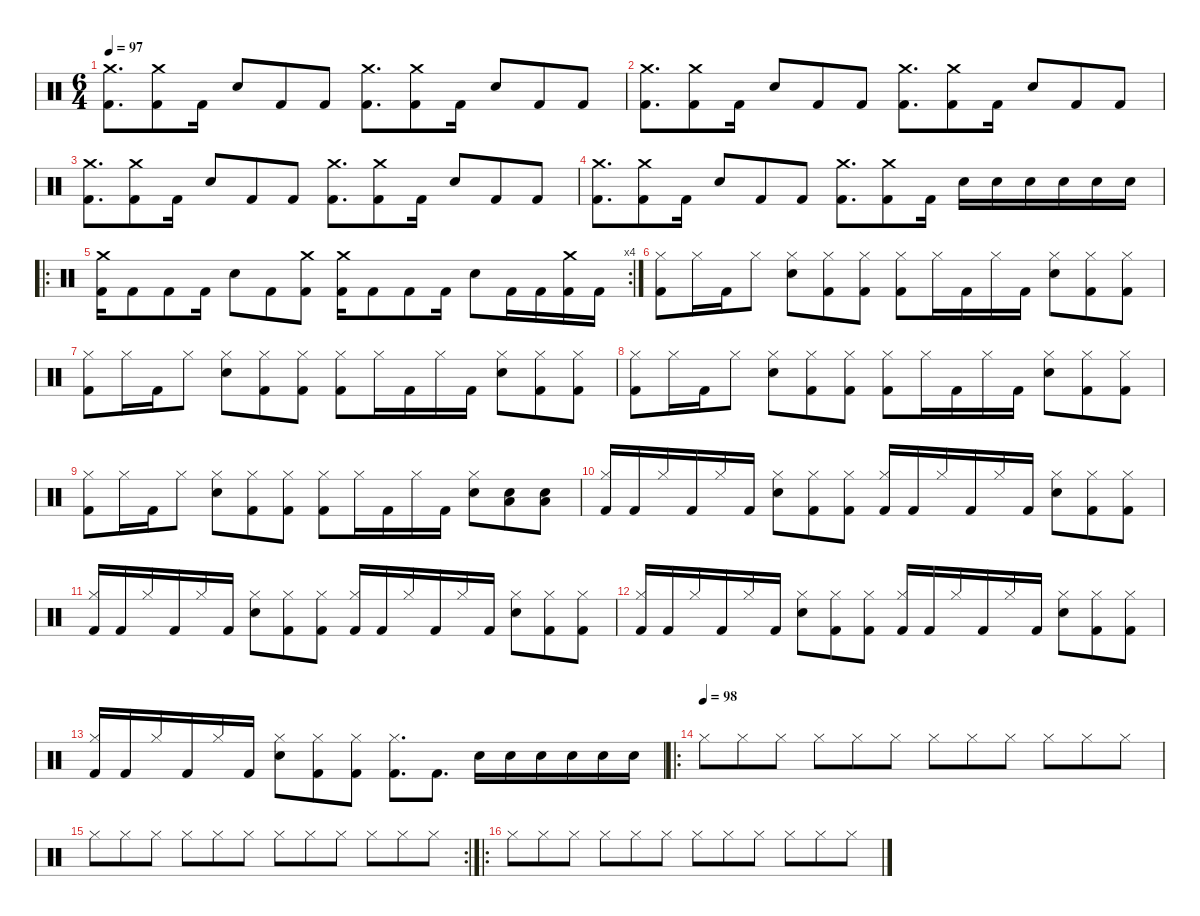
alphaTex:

\defaultSystemsLayout 4
\hideDynamics
\bracketExtendMode nobrackets
\singleTrackTrackNamePolicy hidden
\multiTrackTrackNamePolicy hidden
\firstSystemTrackNameMode fullname
\firstSystemTrackNameOrientation horizontal
\otherSystemsTrackNameOrientation horizontal
\track ("Percussion" "drm.") {instrument percussion}
\staff {score}
\articulation defaults
\ts (6 4)
\beaming (8 3 3 3 3)
\tempo 97
\clef neutral
\ks c
("Crash medium (hit)" "Kick (hit) 2").8{d dy f beam Down} ("Crash medium (hit)" "Kick (hit) 2").8{beam Down beam merge} "Kick (hit) 2".16{dy ff beam Down beam split} "Snare (hit) 2".8{beam Up} "Kick (hit) 2".8{beam Up} "Kick (hit) 2".8{beam Up} ("Crash medium (hit)" "Kick (hit) 2").8{d dy f beam Down} ("Crash medium (hit)" "Kick (hit) 2").8{beam Down} "Kick (hit) 2".16{dy ff beam Down beam split} "Snare (hit) 2".8{beam Up} "Kick (hit) 2".8{beam Up} "Kick (hit) 2".8{beam Up} |
\beaming (8 6 6)
("Crash medium (hit)" "Kick (hit) 2").8{d dy f beam Down} ("Crash medium (hit)" "Kick (hit) 2").8{beam Down} "Kick (hit) 2".16{dy ff beam Down beam split} "Snare (hit) 2".8{beam Up} "Kick (hit) 2".8{beam Up} "Kick (hit) 2".8{beam Up} ("Crash medium (hit)" "Kick (hit) 2").8{d dy f beam Down} ("Crash medium (hit)" "Kick (hit) 2").8{beam Down} "Kick (hit) 2".16{dy ff beam Down beam split} "Snare (hit) 2".8{beam Up} "Kick (hit) 2".8{beam Up} "Kick (hit) 2".8{beam Up} |
("Crash medium (hit)" "Kick (hit) 2").8{d dy f beam Down} ("Crash medium (hit)" "Kick (hit) 2").8{beam Down} "Kick (hit) 2".16{dy ff beam Down beam split} "Snare (hit) 2".8{beam Up} "Kick (hit) 2".8{beam Up} "Kick (hit) 2".8{beam Up} ("Crash medium (hit)" "Kick (hit) 2").8{d dy f beam Down} ("Crash medium (hit)" "Kick (hit) 2").8{beam Down} "Kick (hit) 2".16{dy ff beam Down beam split} "Snare (hit) 2".8{beam Up} "Kick (hit) 2".8{beam Up} "Kick (hit) 2".8{beam Up} |
("Crash medium (hit)" "Kick (hit) 2").8{d dy f beam Down} ("Crash medium (hit)" "Kick (hit) 2").8{beam Down} "Kick (hit) 2".16{dy ff beam Down beam split} "Snare (hit) 2".8{beam Up} "Kick (hit) 2".8{beam Up} "Kick (hit) 2".8{beam Up} ("Crash medium (hit)" "Kick (hit) 2").8{d dy f beam Down} ("Crash medium (hit)" "Kick (hit) 2").8{beam Down} "Kick (hit) 2".16{dy ff beam Down beam split} "Snare (hit) 2".16{dy f beam Down} "Snare (hit) 2".16{beam Down} "Snare (hit) 2".16{beam Down} "Snare (hit) 2".16{beam Down} "Snare (hit) 2".16{beam Down} "Snare (hit) 2".16{beam Down} |
\ro
\rc 4
("Crash medium (hit)" "Kick (hit) 2").16{beam Down} "Kick (hit) 2".8{dy ff beam Down} "Kick (hit) 2".8{beam Down} "Kick (hit) 2".16{beam Down beam split} "Snare (hit) 2".8{beam Down} "Kick (hit) 2".8{beam Down} ("Crash medium (hit)" "Kick (hit) 2").8{dy f beam Down} ("Crash medium (hit)" "Kick (hit) 2").16{beam Down} "Kick (hit) 2".8{dy ff beam Down} "Kick (hit) 2".8{beam Down} "Kick (hit) 2".16{beam Down beam split} "Snare (hit) 2".8{beam Down} "Kick (hit) 2".16{beam Down} "Kick (hit) 2".16{beam Down} ("Crash medium (hit)" "Kick (hit) 2").16{dy f beam Down} "Kick (hit) 2".16{dy ff beam Down} |
("Hi-Hat (closed)" "Kick (hit) 2").8{dy f beam Down} "Hi-Hat (closed)".16{beam Down} "Kick (hit) 2".16{dy ff beam Down} "Hi-Hat (closed)".8{dy f beam Down beam split} ("Hi-Hat (closed)" "Snare (hit) 2").8{beam Down} ("Hi-Hat (closed)" "Kick (hit) 2").8{beam Down} ("Hi-Hat (closed)" "Kick (hit) 2").8{beam Down} ("Hi-Hat (closed)" "Kick (hit) 2").8{beam Down} "Hi-Hat (closed)".16{beam Down} "Kick (hit) 2".16{dy ff beam Down} "Hi-Hat (closed)".16{dy f beam Down} "Kick (hit) 2".16{dy ff beam Down beam split} ("Hi-Hat (closed)" "Snare (hit) 2").8{dy f beam Down} ("Hi-Hat (closed)" "Kick (hit) 2").8{beam Down} ("Hi-Hat (closed)" "Kick (hit) 2").8{beam Down} |
("Hi-Hat (closed)" "Kick (hit) 2").8{beam Down} "Hi-Hat (closed)".16{beam Down} "Kick (hit) 2".16{dy ff beam Down} "Hi-Hat (closed)".8{dy f beam Down beam split} ("Hi-Hat (closed)" "Snare (hit) 2").8{beam Down} ("Hi-Hat (closed)" "Kick (hit) 2").8{beam Down} ("Hi-Hat (closed)" "Kick (hit) 2").8{beam Down} ("Hi-Hat (closed)" "Kick (hit) 2").8{beam Down} "Hi-Hat (closed)".16{beam Down} "Kick (hit) 2".16{dy ff beam Down} "Hi-Hat (closed)".16{dy f beam Down} "Kick (hit) 2".16{dy ff beam Down beam split} ("Hi-Hat (closed)" "Snare (hit) 2").8{dy f beam Down} ("Hi-Hat (closed)" "Kick (hit) 2").8{beam Down} ("Hi-Hat (closed)" "Kick (hit) 2").8{beam Down} |
("Hi-Hat (closed)" "Kick (hit) 2").8{beam Down} "Hi-Hat (closed)".16{beam Down} "Kick (hit) 2".16{dy ff beam Down} "Hi-Hat (closed)".8{dy f beam Down beam split} ("Hi-Hat (closed)" "Snare (hit) 2").8{beam Down} ("Hi-Hat (closed)" "Kick (hit) 2").8{beam Down} ("Hi-Hat (closed)" "Kick (hit) 2").8{beam Down} ("Hi-Hat (closed)" "Kick (hit) 2").8{beam Down} "Hi-Hat (closed)".16{beam Down} "Kick (hit) 2".16{dy ff beam Down} "Hi-Hat (closed)".16{dy f beam Down} "Kick (hit) 2".16{dy ff beam Down beam split} ("Hi-Hat (closed)" "Snare (hit) 2").8{dy f beam Down} ("Hi-Hat (closed)" "Kick (hit) 2").8{beam Down} ("Hi-Hat (closed)" "Kick (hit) 2").8{beam Down} |
("Hi-Hat (closed)" "Kick (hit) 2").8{beam Down} "Hi-Hat (closed)".16{beam Down} "Kick (hit) 2".16{dy ff beam Down} "Hi-Hat (closed)".8{dy f beam Down beam split} ("Hi-Hat (closed)" "Snare (hit) 2").8{beam Down} ("Hi-Hat (closed)" "Kick (hit) 2").8{beam Down} ("Hi-Hat (closed)" "Kick (hit) 2").8{beam Down} ("Hi-Hat (closed)" "Kick (hit) 2").8{beam Down} "Hi-Hat (closed)".16{beam Down} "Kick (hit) 2".16{dy ff beam Down} "Hi-Hat (closed)".16{dy f beam Down} "Kick (hit) 2".16{dy ff beam Down beam split} ("Hi-Hat (closed)" "Snare (hit) 2").8{dy f beam Down} ("Snare (hit) 2" "Low Floor Tom (hit)").8{beam Down} ("Snare (hit) 2" "Low Floor Tom (hit)").8{beam Down} |
("Hi-Hat (closed)" "Kick (hit) 2").16{beam Up} "Kick (hit) 2".16{dy ff beam Up} "Hi-Hat (closed)".16{dy f beam Up} "Kick (hit) 2".16{dy ff beam Up} "Hi-Hat (closed)".16{dy f beam Up} "Kick (hit) 2".16{dy ff beam Up beam split} ("Hi-Hat (closed)" "Snare (hit) 2").8{dy f beam Down} ("Hi-Hat (closed)" "Kick (hit) 2").8{beam Down} ("Hi-Hat (closed)" "Kick (hit) 2").8{beam Down} ("Hi-Hat (closed)" "Kick (hit) 2").16{beam Up} "Kick (hit) 2".16{dy ff beam Up} "Hi-Hat (closed)".16{dy f beam Up} "Kick (hit) 2".16{dy ff beam Up} "Hi-Hat (closed)".16{dy f beam Up} "Kick (hit) 2".16{dy ff beam Up beam split} ("Hi-Hat (closed)" "Snare (hit) 2").8{dy f beam Down} ("Hi-Hat (closed)" "Kick (hit) 2").8{beam Down} ("Hi-Hat (closed)" "Kick (hit) 2").8{beam Down} |
("Hi-Hat (closed)" "Kick (hit) 2").16{beam Up} "Kick (hit) 2".16{dy ff beam Up} "Hi-Hat (closed)".16{dy f beam Up} "Kick (hit) 2".16{dy ff beam Up} "Hi-Hat (closed)".16{dy f beam Up} "Kick (hit) 2".16{dy ff beam Up beam split} ("Hi-Hat (closed)" "Snare (hit) 2").8{dy f beam Down} ("Hi-Hat (closed)" "Kick (hit) 2").8{beam Down} ("Hi-Hat (closed)" "Kick (hit) 2").8{beam Down} ("Hi-Hat (closed)" "Kick (hit) 2").16{beam Up} "Kick (hit) 2".16{dy ff beam Up} "Hi-Hat (closed)".16{dy f beam Up} "Kick (hit) 2".16{dy ff beam Up} "Hi-Hat (closed)".16{dy f beam Up} "Kick (hit) 2".16{dy ff beam Up beam split} ("Hi-Hat (closed)" "Snare (hit) 2").8{dy f beam Down} ("Hi-Hat (closed)" "Kick (hit) 2").8{beam Down} ("Hi-Hat (closed)" "Kick (hit) 2").8{beam Down} |
("Hi-Hat (closed)" "Kick (hit) 2").16{beam Up} "Kick (hit) 2".16{dy ff beam Up} "Hi-Hat (closed)".16{dy f beam Up} "Kick (hit) 2".16{dy ff beam Up} "Hi-Hat (closed)".16{dy f beam Up} "Kick (hit) 2".16{dy ff beam Up beam split} ("Hi-Hat (closed)" "Snare (hit) 2").8{dy f beam Down} ("Hi-Hat (closed)" "Kick (hit) 2").8{beam Down} ("Hi-Hat (closed)" "Kick (hit) 2").8{beam Down} ("Hi-Hat (closed)" "Kick (hit) 2").16{beam Up} "Kick (hit) 2".16{dy ff beam Up} "Hi-Hat (closed)".16{dy f beam Up} "Kick (hit) 2".16{dy ff beam Up} "Hi-Hat (closed)".16{dy f beam Up} "Kick (hit) 2".16{dy ff beam Up beam split} ("Hi-Hat (closed)" "Snare (hit) 2").8{dy f beam Down} ("Hi-Hat (closed)" "Kick (hit) 2").8{beam Down} ("Hi-Hat (closed)" "Kick (hit) 2").8{beam Down} |
("Hi-Hat (closed)" "Kick (hit) 2").16{beam Up} "Kick (hit) 2".16{dy ff beam Up} "Hi-Hat (closed)".16{dy f beam Up} "Kick (hit) 2".16{dy ff beam Up} "Hi-Hat (closed)".16{dy f beam Up} "Kick (hit) 2".16{dy ff beam Up beam split} ("Hi-Hat (closed)" "Snare (hit) 2").8{dy f beam Down} ("Hi-Hat (closed)" "Kick (hit) 2").8{beam Down} ("Hi-Hat (closed)" "Kick (hit) 2").8{beam Down} ("Hi-Hat (closed)" "Kick (hit) 2").8{d beam Down} "Kick (hit) 2".8{d dy ff beam Down beam split} "Snare (hit) 2".16{beam Down} "Snare (hit) 2".16{beam Down} "Snare (hit) 2".16{beam Down} "Snare (hit) 2".16{beam Down} "Snare (hit) 2".16{beam Down} "Snare (hit) 2".16{beam Down} |
\ro
\tempo (98)
"Hi-Hat (closed)".8{dy mf beam Down} "Hi-Hat (closed)".8{beam Down} "Hi-Hat (closed)".8{beam Down beam split} "Hi-Hat (closed)".8{beam Down} "Hi-Hat (closed)".8{beam Down} "Hi-Hat (closed)".8{beam Down} "Hi-Hat (closed)".8{beam Down} "Hi-Hat (closed)".8{beam Down} "Hi-Hat (closed)".8{beam Down beam split} "Hi-Hat (closed)".8{beam Down} "Hi-Hat (closed)".8{beam Down} "Hi-Hat (closed)".8{beam Down} |
\rc 2 "Hi-Hat (closed)".8{beam Down} "Hi-Hat (closed)".8{beam Down} "Hi-Hat (closed)".8{beam Down beam split} "Hi-Hat (closed)".8{beam Down} "Hi-Hat (closed)".8{beam Down} "Hi-Hat (closed)".8{beam Down} "Hi-Hat (closed)".8{beam Down} "Hi-Hat (closed)".8{beam Down} "Hi-Hat (closed)".8{beam Down beam split} "Hi-Hat (closed)".8{beam Down} "Hi-Hat (closed)".8{beam Down} "Hi-Hat (closed)".8{beam Down}
|
\ro
\tempo (98 hide)
"Hi-Hat (closed)".8{beam Down} "Hi-Hat (closed)".8{beam Down} "Hi-Hat (closed)".8{beam Down beam split} "Hi-Hat (closed)".8{beam Down} "Hi-Hat (closed)".8{beam Down} "Hi-Hat (closed)".8{beam Down} "Hi-Hat (closed)".8{beam Down} "Hi-Hat (closed)".8{beam Down} "Hi-Hat (closed)".8{beam Down beam split} "Hi-Hat (closed)".8{beam Down} "Hi-Hat (closed)".8{beam Down} "Hi-Hat (closed)".8{beam Down}
